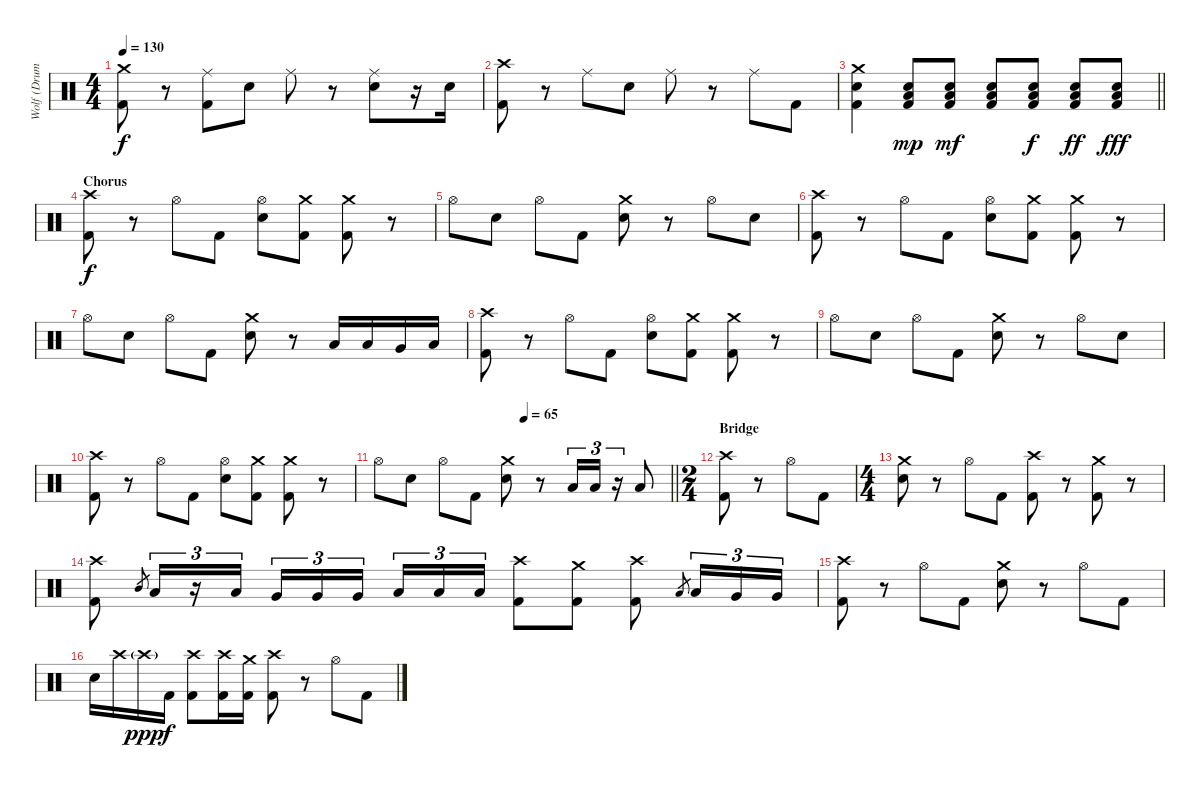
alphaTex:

\track ("Wolf (Drums)" "Wolf (Drum") {instrument percussion}
\staff {score}
\articulation defaults
\ts (4 4)
\tempo 130
\clef neutral
\ks c
("Crash medium (hit)" "Kick (hit) 2").8{dy f} r.8 ("Ride (middle)" "Kick (hit) 2").8 "Snare (hit) 2".8 "Ride (middle)".8 r.8 ("Ride (middle)" "Snare (hit) 2").8 r.16 "Snare (hit) 2".16 |
("Crash high (hit)" "Kick (hit) 2").8 r.8 "Ride (middle)".8 "Snare (hit) 2".8 "Ride (middle)".8 r.8 "Ride (middle)".8 "Kick (hit) 2".8 |
\barLineRight lightlight
("Crash medium (hit)" "Snare (hit) 2" "Kick (hit) 2").4 ("Snare (hit) 2" "Low Floor Tom (hit)" "Kick (hit) 2").8{dy mp} ("Snare (hit) 2" "Low Floor Tom (hit)" "Kick (hit) 2").8{dy mf} ("Snare (hit) 2" "Low Floor Tom (hit)" "Kick (hit) 2").8 ("Snare (hit) 2" "Low Floor Tom (hit)" "Kick (hit) 2").8{dy f} ("Snare (hit) 2" "Low Floor Tom (hit)" "Kick (hit) 2").8{dy ff} ("Snare (hit) 2" "Low Floor Tom (hit)" "Kick (hit) 2").8{dy fff} |
\section ("" "Chorus")
("Crash high (hit)" "Kick (hit) 2").8{dy f} r.8 "Hi-Hat (open)".8 "Kick (hit) 2".8 ("Hi-Hat (open)" "Snare (hit) 2").8 ("Crash medium (hit)" "Kick (hit) 2").8 ("Crash medium (hit)" "Kick (hit) 2").8 r.8 |
"Hi-Hat (open)".8 "Snare (hit) 2".8 "Hi-Hat (open)".8 "Kick (hit) 2".8 ("Crash medium (hit)" "Snare (hit) 2").8 r.8 "Hi-Hat (open)".8 "Snare (hit) 2".8 |
("Crash high (hit)" "Kick (hit) 2").8 r.8 "Hi-Hat (open)".8 "Kick (hit) 2".8 ("Hi-Hat (open)" "Snare (hit) 2").8 ("Crash medium (hit)" "Kick (hit) 2").8 ("Crash medium (hit)" "Kick (hit) 2").8 r.8 |
"Hi-Hat (open)".8 "Snare (hit) 2".8 "Hi-Hat (open)".8 "Kick (hit) 2".8 ("Crash medium (hit)" "Snare (hit) 2").8 r.8 "Low Tom (hit)".16 "Low Tom (hit)".16 "Very Low Tom (hit)".16 "Low Floor Tom (hit)".16 |
("Crash high (hit)" "Kick (hit) 2").8 r.8 "Hi-Hat (open)".8 "Kick (hit) 2".8 ("Hi-Hat (open)" "Snare (hit) 2").8 ("Crash medium (hit)" "Kick (hit) 2").8 ("Crash medium (hit)" "Kick (hit) 2").8 r.8 |
"Hi-Hat (open)".8 "Snare (hit) 2".8 "Hi-Hat (open)".8 "Kick (hit) 2".8 ("Crash medium (hit)" "Snare (hit) 2").8 r.8 "Hi-Hat (open)".8 "Snare (hit) 2".8 |
("Crash high (hit)" "Kick (hit) 2").8 r.8 "Hi-Hat (open)".8 "Kick (hit) 2".8 ("Hi-Hat (open)" "Snare (hit) 2").8 ("Crash medium (hit)" "Kick (hit) 2").8 ("Crash medium (hit)" "Kick (hit) 2").8 r.8 |
\tempo (65 0.5)
\barLineRight lightlight "Hi-Hat (open)".8 "Snare (hit) 2".8 "Hi-Hat (open)".8 "Kick (hit) 2".8
("Crash medium (hit)" "Snare (hit) 2").8 r.8 "Low Tom (hit)".16{tu (3 2)} "Low Tom (hit)".16{tu (3 2)} r.16{tu (3 2)} "Low Tom (hit)".8 |
\ts (2 4)
\section ("" "Bridge")
("Crash high (hit)" "Kick (hit) 2").8 r.8 "Hi-Hat (open)".8 "Kick (hit) 2".8 |
\ts (4 4)
("Crash medium (hit)" "Snare (hit) 2").8 r.8 "Hi-Hat (open)".8 "Kick (hit) 2".8 ("Crash high (hit)" "Kick (hit) 2").8 r.8 ("Crash medium (hit)" "Kick (hit) 2").8 r.8 |
("Crash high (hit)" "Kick (hit) 2").8 "Mid Tom (hit)".8{gr} "Low Tom (hit)".16{tu (3 2)} r.16{tu (3 2)} "Low Tom (hit)".16{tu (3 2)} "Very Low Tom (hit)".16{tu (3 2)} "Very Low Tom (hit)".16{tu (3 2)} "Very Low Tom (hit)".16{tu (3 2) beam splitsecondary} "Low Floor Tom (hit)".16{tu (3 2)} "Low Floor Tom (hit)".16{tu (3 2)} "Low Floor Tom (hit)".16{tu (3 2)} ("Crash high (hit)" "Kick (hit) 2").8 ("Crash medium (hit)" "Kick (hit) 2").8 ("Crash high (hit)" "Kick (hit) 2").8 "Low Tom (hit)".8{gr} "Low Tom (hit)".16{tu (3 2)} "Very Low Tom (hit)".16{tu (3 2)} "Very Low Tom (hit)".16{tu (3 2)} |
("Crash high (hit)" "Kick (hit) 2").8 r.8 "Hi-Hat (open)".8 "Kick (hit) 2".8 ("Crash medium (hit)" "Snare (hit) 2").8 r.8 "Hi-Hat (open)".8 "Kick (hit) 2".8 |
"Snare (hit) 2".16 "Crash high (hit)".16 "Crash high (hit)"{g}.16{dy ppp} "Kick (hit) 2".16{dy f} ("Crash high (hit)" "Kick (hit) 2").8 ("Crash high (hit)" "Kick (hit) 2").16 ("Crash medium (hit)" "Kick (hit) 2").16 ("Crash high (hit)" "Kick (hit) 2").8 r.8 "Hi-Hat (open)".8 "Kick (hit) 2".8
